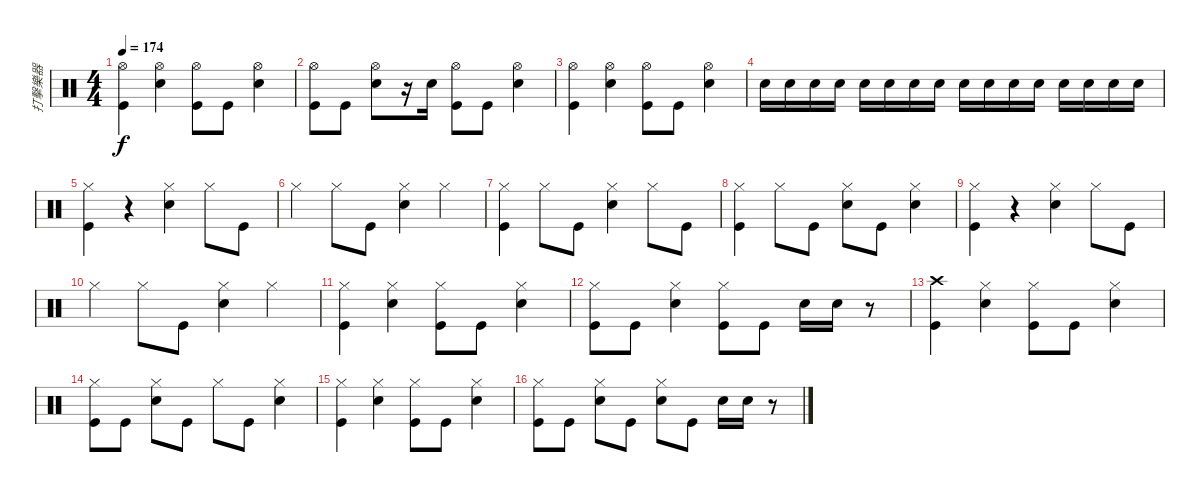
\track ("打擊樂器" "打擊樂器") {instrument percussion}
\staff {score}
\articulation defaults
\ts (4 4)
\tempo 174
\clef neutral
\ks c
("Hi-Hat (open)" "Kick (hit)").4{dy f} ("Hi-Hat (open)" "Snare (hit) 2").4 ("Kick (hit)" "Hi-Hat (open)").8 "Kick (hit)".8 ("Hi-Hat (open)" "Snare (hit) 2").4 |
("Hi-Hat (open)" "Kick (hit)").8 "Kick (hit)".8 ("Hi-Hat (open)" "Snare (hit) 2").8 r.16 "Snare (hit) 2".16 ("Hi-Hat (open)" "Kick (hit)").8 "Kick (hit)".8 ("Hi-Hat (open)" "Snare (hit) 2").4 |
("Hi-Hat (open)" "Kick (hit)").4 ("Hi-Hat (open)" "Snare (hit) 2").4 ("Kick (hit)" "Hi-Hat (open)").8 "Kick (hit)".8 ("Hi-Hat (open)" "Snare (hit) 2").4 |
"Snare (hit) 2".16 "Snare (hit) 2".16 "Snare (hit) 2".16 "Snare (hit) 2".16 "Snare (hit) 2".16 "Snare (hit) 2".16 "Snare (hit) 2".16 "Snare (hit) 2".16 "Snare (hit) 2".16 "Snare (hit) 2".16 "Snare (hit) 2".16 "Snare (hit) 2".16 "Snare (hit) 2".16 "Snare (hit) 2".16 "Snare (hit) 2".16 "Snare (hit) 2".16 |
("Hi-Hat (closed)" "Kick (hit)").4 r.4 ("Hi-Hat (closed)" "Snare (hit) 2").4 "Hi-Hat (closed)".8 "Kick (hit)".8 |
"Hi-Hat (closed)".4 "Hi-Hat (closed)".8 "Kick (hit)".8 ("Hi-Hat (closed)" "Snare (hit) 2").4 "Hi-Hat (closed)".4 |
("Hi-Hat (closed)" "Kick (hit)").4 "Hi-Hat (closed)".8 "Kick (hit)".8 ("Hi-Hat (closed)" "Snare (hit) 2").4 "Hi-Hat (closed)".8 "Kick (hit)".8 |
("Kick (hit)" "Hi-Hat (closed)").4 "Hi-Hat (closed)".8 "Kick (hit)".8 ("Hi-Hat (closed)" "Snare (hit) 2").8 "Kick (hit)".8 ("Hi-Hat (closed)" "Snare (hit) 2").4 |
("Hi-Hat (closed)" "Kick (hit)").4 r.4 ("Hi-Hat (closed)" "Snare (hit) 2").4 "Hi-Hat (closed)".8 "Kick (hit)".8 |
"Hi-Hat (closed)".4 "Hi-Hat (closed)".8 "Kick (hit)".8 ("Hi-Hat (closed)" "Snare (hit) 2").4 "Hi-Hat (closed)".4 |
("Hi-Hat (closed)" "Kick (hit)").4 ("Hi-Hat (closed)" "Snare (hit) 2").4 ("Hi-Hat (closed)" "Kick (hit)").8 "Kick (hit)".8 ("Hi-Hat (closed)" "Snare (hit) 2").4 |
("Kick (hit)" "Hi-Hat (closed)").8 "Kick (hit)".8 ("Hi-Hat (closed)" "Snare (hit) 2").4 ("Kick (hit)" "Hi-Hat (closed)").8 "Kick (hit)".8 "Snare (hit) 2".16 "Snare (hit) 2".16 r.8 |
("Crash high (hit)" "Kick (hit)").4 ("Hi-Hat (closed)" "Snare (hit) 2").4 ("Kick (hit)" "Hi-Hat (closed)").8 "Kick (hit)".8 ("Hi-Hat (closed)" "Snare (hit) 2").4 |
("Hi-Hat (closed)" "Kick (hit)").8 "Kick (hit)".8 ("Hi-Hat (closed)" "Snare (hit) 2").8 "Kick (hit)".8 "Hi-Hat (closed)".8 "Kick (hit)".8 ("Snare (hit) 2" "Hi-Hat (closed)").4 |
("Hi-Hat (closed)" "Kick (hit)").4 ("Hi-Hat (closed)" "Snare (hit) 2").4 ("Kick (hit)" "Hi-Hat (closed)").8 "Kick (hit)".8 ("Hi-Hat (closed)" "Snare (hit) 2").4 |
("Hi-Hat (closed)" "Kick (hit)").8 "Kick (hit)".8 ("Hi-Hat (closed)" "Snare (hit) 2").8 "Kick (hit)".8 ("Snare (hit) 2" "Hi-Hat (closed)").8 "Kick (hit)".8 "Snare (hit) 2".16 "Snare (hit) 2".16 r.8
